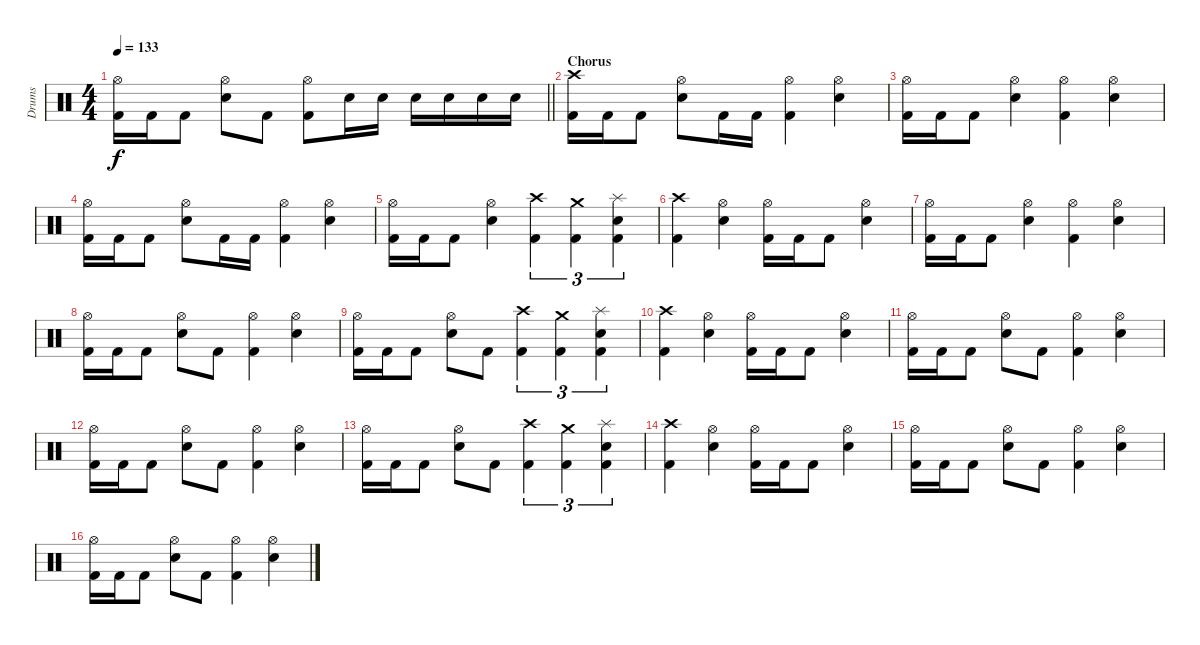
\track ("Drums" "Drums") {instrument percussion}
\staff {score}
\articulation defaults
\ts (4 4)
\tempo 133
\clef neutral
\barLineRight lightlight
\ks aminor
("Hi-Hat (open)" "Kick (hit) 2").16{dy f} "Kick (hit) 2".16 "Kick (hit) 2".8 ("Hi-Hat (open)" "Electric Snare (hit)").8 "Kick (hit) 2".8 ("Hi-Hat (open)" "Kick (hit) 2").8 "Electric Snare (hit)".16 "Electric Snare (hit)".16 "Electric Snare (hit)".16 "Electric Snare (hit)".16 "Electric Snare (hit)".16 "Electric Snare (hit)".16 |
\section ("" "Chorus")
("Crash high (hit)" "Kick (hit) 2").16 "Kick (hit) 2".16 "Kick (hit) 2".8 ("Hi-Hat (open)" "Electric Snare (hit)").8 "Kick (hit) 2".16 "Kick (hit) 2".16 ("Hi-Hat (open)" "Kick (hit) 2").4 ("Hi-Hat (open)" "Electric Snare (hit)").4 |
("Hi-Hat (open)" "Kick (hit) 2").16 "Kick (hit) 2".16 "Kick (hit) 2".8 ("Hi-Hat (open)" "Electric Snare (hit)").4 ("Hi-Hat (open)" "Kick (hit) 2").4 ("Hi-Hat (open)" "Electric Snare (hit)").4 |
("Hi-Hat (open)" "Kick (hit) 2").16 "Kick (hit) 2".16 "Kick (hit) 2".8 ("Hi-Hat (open)" "Electric Snare (hit)").8 "Kick (hit) 2".16 "Kick (hit) 2".16 ("Hi-Hat (open)" "Kick (hit) 2").4 ("Hi-Hat (open)" "Electric Snare (hit)").4 |
("Hi-Hat (open)" "Kick (hit) 2").16 "Kick (hit) 2".16 "Kick (hit) 2".8 ("Hi-Hat (open)" "Electric Snare (hit)").4 ("Crash high (hit)" "Kick (hit) 2").4{tu (3 2)} ("Crash medium (hit)" "Kick (hit) 2").4{tu (3 2)} ("Splash (hit)" "Electric Snare (hit)" "Kick (hit) 2").4{tu (3 2)} |
("Crash high (hit)" "Kick (hit) 2").4 ("Hi-Hat (open)" "Electric Snare (hit)").4 ("Hi-Hat (open)" "Kick (hit) 2").16 "Kick (hit) 2".16 "Kick (hit) 2".8 ("Hi-Hat (open)" "Electric Snare (hit)").4 |
("Hi-Hat (open)" "Kick (hit) 2").16 "Kick (hit) 2".16 "Kick (hit) 2".8 ("Hi-Hat (open)" "Electric Snare (hit)").4 ("Hi-Hat (open)" "Kick (hit) 2").4 ("Hi-Hat (open)" "Electric Snare (hit)").4 |
("Hi-Hat (open)" "Kick (hit) 2").16 "Kick (hit) 2".16 "Kick (hit) 2".8 ("Hi-Hat (open)" "Electric Snare (hit)").8 "Kick (hit) 2".8 ("Hi-Hat (open)" "Kick (hit) 2").4 ("Hi-Hat (open)" "Electric Snare (hit)").4 |
("Hi-Hat (open)" "Kick (hit) 2").16 "Kick (hit) 2".16 "Kick (hit) 2".8 ("Hi-Hat (open)" "Electric Snare (hit)").8 "Kick (hit) 2".8 ("Crash high (hit)" "Kick (hit) 2").4{tu (3 2)} ("Crash medium (hit)" "Kick (hit) 2").4{tu (3 2)} ("Splash (hit)" "Electric Snare (hit)" "Kick (hit) 2").4{tu (3 2)} |
("Crash high (hit)" "Kick (hit) 2").4 ("Hi-Hat (open)" "Electric Snare (hit)").4 ("Hi-Hat (open)" "Kick (hit) 2").16 "Kick (hit) 2".16 "Kick (hit) 2".8 ("Hi-Hat (open)" "Electric Snare (hit)").4 |
("Hi-Hat (open)" "Kick (hit) 2").16 "Kick (hit) 2".16 "Kick (hit) 2".8 ("Hi-Hat (open)" "Electric Snare (hit)").8 "Kick (hit) 2".8 ("Hi-Hat (open)" "Kick (hit) 2").4 ("Hi-Hat (open)" "Electric Snare (hit)").4 |
("Hi-Hat (open)" "Kick (hit) 2").16 "Kick (hit) 2".16 "Kick (hit) 2".8 ("Hi-Hat (open)" "Electric Snare (hit)").8 "Kick (hit) 2".8 ("Hi-Hat (open)" "Kick (hit) 2").4 ("Hi-Hat (open)" "Electric Snare (hit)").4 |
("Hi-Hat (open)" "Kick (hit) 2").16 "Kick (hit) 2".16 "Kick (hit) 2".8 ("Hi-Hat (open)" "Electric Snare (hit)").8 "Kick (hit) 2".8 ("Crash high (hit)" "Kick (hit) 2").4{tu (3 2)} ("Crash medium (hit)" "Kick (hit) 2").4{tu (3 2)} ("Splash (hit)" "Electric Snare (hit)" "Kick (hit) 2").4{tu (3 2)} |
("Crash high (hit)" "Kick (hit) 2").4 ("Hi-Hat (open)" "Electric Snare (hit)").4 ("Hi-Hat (open)" "Kick (hit) 2").16 "Kick (hit) 2".16 "Kick (hit) 2".8 ("Hi-Hat (open)" "Electric Snare (hit)").4 |
("Hi-Hat (open)" "Kick (hit) 2").16 "Kick (hit) 2".16 "Kick (hit) 2".8 ("Hi-Hat (open)" "Electric Snare (hit)").8 "Kick (hit) 2".8 ("Hi-Hat (open)" "Kick (hit) 2").4 ("Hi-Hat (open)" "Electric Snare (hit)").4 |
("Hi-Hat (open)" "Kick (hit) 2").16 "Kick (hit) 2".16 "Kick (hit) 2".8 ("Hi-Hat (open)" "Electric Snare (hit)").8 "Kick (hit) 2".8 ("Hi-Hat (open)" "Kick (hit) 2").4 ("Hi-Hat (open)" "Electric Snare (hit)").4
